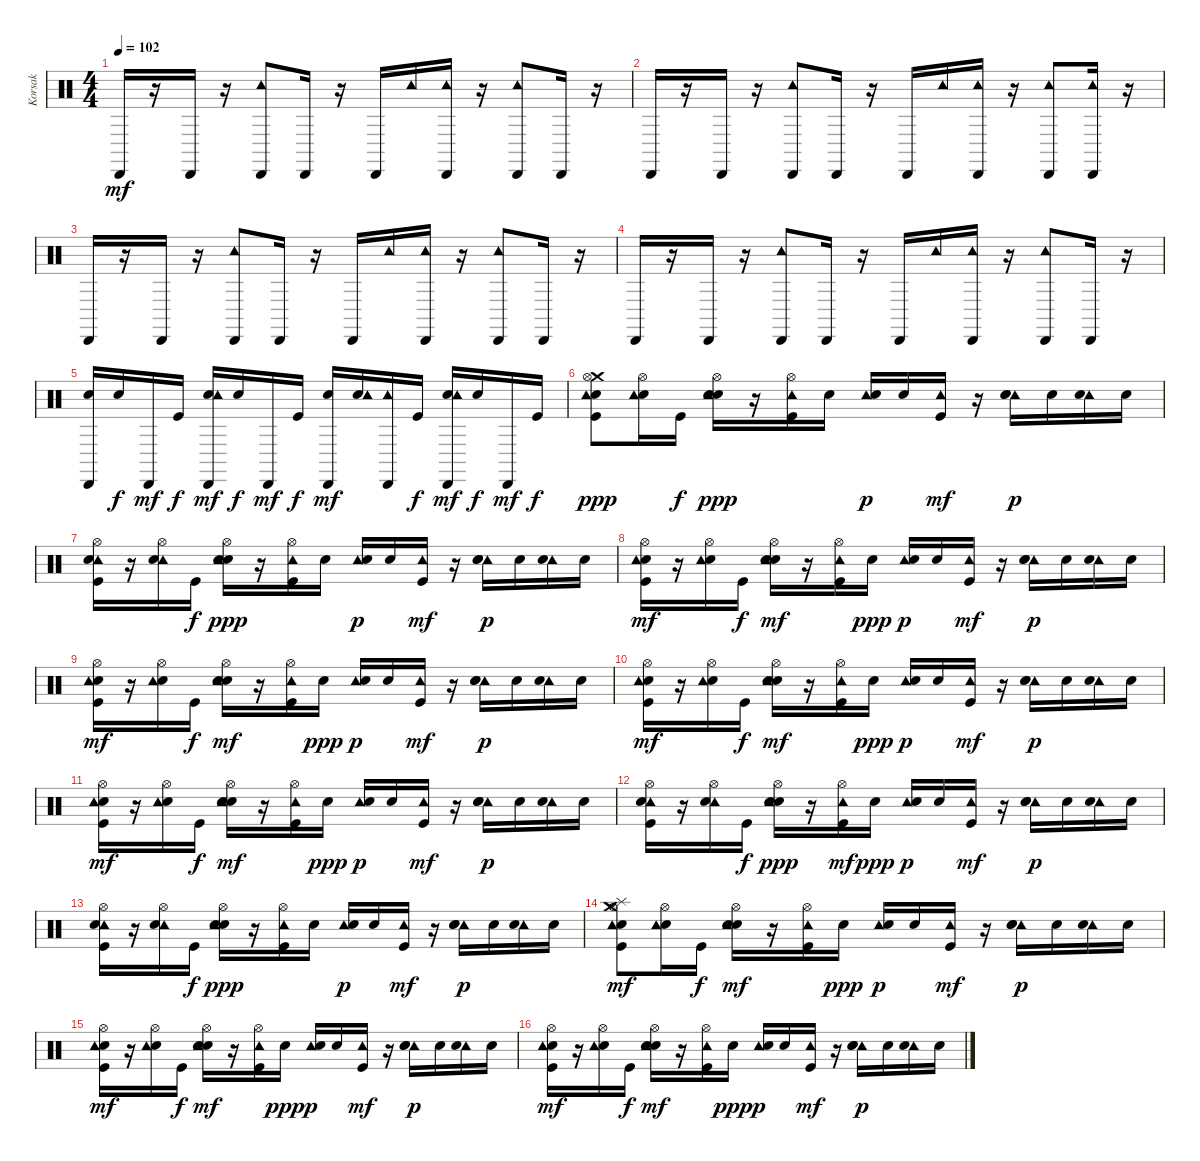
\track ("Korsak" "Korsak") {instrument percussion}
\staff {score}
\articulation defaults
\ts (4 4)
\tempo 102
\clef neutral
\ks c "Cabasa (hit)".16{dy mf}
r.16 "Cabasa (hit)".16 r.16 ("Tambourine (hit)" "Cabasa (hit)").8 "Cabasa (hit)".16 r.16 "Cabasa (hit)".16 "Tambourine (hit)".16 ("Tambourine (hit)" "Cabasa (hit)").16 r.16 ("Tambourine (hit)" "Cabasa (hit)").8 "Cabasa (hit)".16 r.16 |
"Cabasa (hit)".16 r.16 "Cabasa (hit)".16 r.16 ("Tambourine (hit)" "Cabasa (hit)").8 "Cabasa (hit)".16 r.16 "Cabasa (hit)".16 "Tambourine (hit)".16 ("Tambourine (hit)" "Cabasa (hit)").16 r.16 ("Tambourine (hit)" "Cabasa (hit)").8 ("Tambourine (hit)" "Cabasa (hit)").16 r.16 |
"Cabasa (hit)".16 r.16 "Cabasa (hit)".16 r.16 ("Tambourine (hit)" "Cabasa (hit)").8 "Cabasa (hit)".16 r.16 "Cabasa (hit)".16 "Tambourine (hit)".16 ("Tambourine (hit)" "Cabasa (hit)").16 r.16 ("Tambourine (hit)" "Cabasa (hit)").8 "Cabasa (hit)".16 r.16 |
"Cabasa (hit)".16 r.16 "Cabasa (hit)".16 r.16 ("Tambourine (hit)" "Cabasa (hit)").8 "Cabasa (hit)".16 r.16 "Cabasa (hit)".16 "Tambourine (hit)".16 ("Tambourine (hit)" "Cabasa (hit)").16 r.16 ("Tambourine (hit)" "Cabasa (hit)").8 "Cabasa (hit)".16 r.16 |
("Snare (hit) 2" "Cabasa (hit)").16 "Snare (hit) 2".16{dy f} "Cabasa (hit)".16{dy mf} "Kick (hit)".16{dy f} ("Snare (hit) 2" "Tambourine (hit)" "Cabasa (hit)").16{dy mf} "Snare (hit) 2".16{dy f} "Cabasa (hit)".16{dy mf} "Kick (hit)".16{dy f} ("Snare (hit) 2" "Cabasa (hit)").16{dy mf} ("Snare (hit) 2" "Tambourine (hit)").16 ("Tambourine (hit)" "Cabasa (hit)").16 "Kick (hit)".16{dy f} ("Snare (hit) 2" "Tambourine (hit)" "Cabasa (hit)").16{dy mf} "Snare (hit) 2".16{dy f} "Cabasa (hit)".16{dy mf} "Kick (hit)".16{dy f} |
("Crash medium (hit)" "Electric Snare (hit)" "Kick (hit)" "Tambourine (hit)" "Hi-Hat (open)").8{dy ppp} ("Electric Snare (hit)" "Tambourine (hit)" "Hi-Hat (open)").16 "Kick (hit)".16{dy f} ("Electric Snare (hit)" "Snare (hit) 2" "Tambourine (hit)" "Hi-Hat (open)").16{dy ppp} r.16 ("Kick (hit)" "Tambourine (hit)" "Hi-Hat (open)").16 "Electric Snare (hit)".16 ("Tambourine (hit)" "Electric Snare (hit)").16{dy p} "Electric Snare (hit)".16 ("Kick (hit)" "Tambourine (hit)").16{dy mf} r.16 ("Tambourine (hit)" "Electric Snare (hit)" "Snare (hit) 2").16{dy p} "Electric Snare (hit)".16 ("Tambourine (hit)" "Electric Snare (hit)").16 "Electric Snare (hit)".16 |
("Kick (hit)" "Tambourine (hit)" "Hi-Hat (open)" "Electric Snare (hit)").16 r.16 ("Tambourine (hit)" "Hi-Hat (open)" "Electric Snare (hit)").16 "Kick (hit)".16{dy f} ("Snare (hit) 2" "Tambourine (hit)" "Hi-Hat (open)" "Electric Snare (hit)").16{dy ppp} r.16 ("Kick (hit)" "Tambourine (hit)" "Hi-Hat (open)").16 "Electric Snare (hit)".16 ("Tambourine (hit)" "Electric Snare (hit)").16{dy p} "Electric Snare (hit)".16 ("Kick (hit)" "Tambourine (hit)").16{dy mf} r.16 ("Tambourine (hit)" "Electric Snare (hit)" "Snare (hit) 2").16{dy p} "Electric Snare (hit)".16 ("Tambourine (hit)" "Electric Snare (hit)").16 "Electric Snare (hit)".16 |
("Hi-Hat (open)" "Kick (hit)" "Electric Snare (hit)" "Tambourine (hit)").16{dy mf} r.16 ("Hi-Hat (open)" "Electric Snare (hit)" "Tambourine (hit)").16 "Kick (hit)".16{dy f} ("Hi-Hat (open)" "Snare (hit) 2" "Electric Snare (hit)" "Tambourine (hit)").16{dy mf} r.16 ("Hi-Hat (open)" "Kick (hit)" "Tambourine (hit)").16 "Electric Snare (hit)".16{dy ppp} ("Tambourine (hit)" "Electric Snare (hit)").16{dy p} "Electric Snare (hit)".16 ("Kick (hit)" "Tambourine (hit)").16{dy mf} r.16 ("Tambourine (hit)" "Electric Snare (hit)" "Snare (hit) 2").16{dy p} "Electric Snare (hit)".16 ("Tambourine (hit)" "Electric Snare (hit)").16 "Electric Snare (hit)".16 |
("Kick (hit)" "Hi-Hat (open)" "Electric Snare (hit)" "Tambourine (hit)").16{dy mf} r.16 ("Hi-Hat (open)" "Electric Snare (hit)" "Tambourine (hit)").16 "Kick (hit)".16{dy f} ("Snare (hit) 2" "Hi-Hat (open)" "Electric Snare (hit)" "Tambourine (hit)").16{dy mf} r.16 ("Kick (hit)" "Hi-Hat (open)" "Tambourine (hit)").16 "Electric Snare (hit)".16{dy ppp} ("Tambourine (hit)" "Electric Snare (hit)").16{dy p} "Electric Snare (hit)".16 ("Kick (hit)" "Tambourine (hit)").16{dy mf} r.16 ("Tambourine (hit)" "Electric Snare (hit)" "Snare (hit) 2").16{dy p} "Electric Snare (hit)".16 ("Tambourine (hit)" "Electric Snare (hit)").16 "Electric Snare (hit)".16 |
("Hi-Hat (open)" "Kick (hit)" "Electric Snare (hit)" "Tambourine (hit)").16{dy mf} r.16 ("Hi-Hat (open)" "Electric Snare (hit)" "Tambourine (hit)").16 "Kick (hit)".16{dy f} ("Hi-Hat (open)" "Snare (hit) 2" "Electric Snare (hit)" "Tambourine (hit)").16{dy mf} r.16 ("Hi-Hat (open)" "Kick (hit)" "Tambourine (hit)").16 "Electric Snare (hit)".16{dy ppp} ("Tambourine (hit)" "Electric Snare (hit)").16{dy p} "Electric Snare (hit)".16 ("Kick (hit)" "Tambourine (hit)").16{dy mf} r.16 ("Tambourine (hit)" "Electric Snare (hit)" "Snare (hit) 2").16{dy p} "Electric Snare (hit)".16 ("Tambourine (hit)" "Electric Snare (hit)").16 "Electric Snare (hit)".16 |
("Hi-Hat (open)" "Kick (hit)" "Electric Snare (hit)" "Tambourine (hit)").16{dy mf} r.16 ("Hi-Hat (open)" "Electric Snare (hit)" "Tambourine (hit)").16 "Kick (hit)".16{dy f} ("Hi-Hat (open)" "Snare (hit) 2" "Electric Snare (hit)" "Tambourine (hit)").16{dy mf} r.16 ("Hi-Hat (open)" "Kick (hit)" "Tambourine (hit)").16 "Electric Snare (hit)".16{dy ppp} ("Tambourine (hit)" "Electric Snare (hit)").16{dy p} "Electric Snare (hit)".16 ("Kick (hit)" "Tambourine (hit)").16{dy mf} r.16 ("Tambourine (hit)" "Electric Snare (hit)" "Snare (hit) 2").16{dy p} "Electric Snare (hit)".16 ("Tambourine (hit)" "Electric Snare (hit)").16 "Electric Snare (hit)".16 |
("Hi-Hat (open)" "Kick (hit)" "Tambourine (hit)" "Electric Snare (hit)").16 r.16 ("Hi-Hat (open)" "Tambourine (hit)" "Electric Snare (hit)").16 "Kick (hit)".16{dy f} ("Hi-Hat (open)" "Snare (hit) 2" "Tambourine (hit)" "Electric Snare (hit)").16{dy ppp} r.16 ("Hi-Hat (open)" "Kick (hit)" "Tambourine (hit)").16{dy mf} "Electric Snare (hit)".16{dy ppp} ("Tambourine (hit)" "Electric Snare (hit)").16{dy p} "Electric Snare (hit)".16 ("Kick (hit)" "Tambourine (hit)").16{dy mf} r.16 ("Tambourine (hit)" "Electric Snare (hit)" "Snare (hit) 2").16{dy p} "Electric Snare (hit)".16 ("Tambourine (hit)" "Electric Snare (hit)").16 "Electric Snare (hit)".16 |
("Kick (hit)" "Tambourine (hit)" "Hi-Hat (open)" "Electric Snare (hit)").16 r.16 ("Tambourine (hit)" "Hi-Hat (open)" "Electric Snare (hit)").16 "Kick (hit)".16{dy f} ("Snare (hit) 2" "Tambourine (hit)" "Hi-Hat (open)" "Electric Snare (hit)").16{dy ppp} r.16 ("Kick (hit)" "Tambourine (hit)" "Hi-Hat (open)").16 "Electric Snare (hit)".16 ("Tambourine (hit)" "Electric Snare (hit)").16{dy p} "Electric Snare (hit)".16 ("Kick (hit)" "Tambourine (hit)").16{dy mf} r.16 ("Tambourine (hit)" "Electric Snare (hit)" "Snare (hit) 2").16{dy p} "Electric Snare (hit)".16 ("Tambourine (hit)" "Electric Snare (hit)").16 "Electric Snare (hit)".16 |
("Splash (hit)" "Crash medium (hit)" "Kick (hit)" "Hi-Hat (open)" "Electric Snare (hit)" "Tambourine (hit)").8{dy mf} ("Hi-Hat (open)" "Electric Snare (hit)" "Tambourine (hit)").16 "Kick (hit)".16{dy f} ("Snare (hit) 2" "Hi-Hat (open)" "Electric Snare (hit)" "Tambourine (hit)").16{dy mf} r.16 ("Kick (hit)" "Hi-Hat (open)" "Tambourine (hit)").16 "Electric Snare (hit)".16{dy ppp} ("Tambourine (hit)" "Electric Snare (hit)").16{dy p} "Electric Snare (hit)".16 ("Kick (hit)" "Tambourine (hit)").16{dy mf} r.16 ("Tambourine (hit)" "Electric Snare (hit)" "Snare (hit) 2").16{dy p} "Electric Snare (hit)".16 ("Tambourine (hit)" "Electric Snare (hit)").16 "Electric Snare (hit)".16 |
("Hi-Hat (open)" "Kick (hit)" "Electric Snare (hit)" "Tambourine (hit)").16{dy mf} r.16 ("Hi-Hat (open)" "Electric Snare (hit)" "Tambourine (hit)").16 "Kick (hit)".16{dy f} ("Hi-Hat (open)" "Snare (hit) 2" "Electric Snare (hit)" "Tambourine (hit)").16{dy mf} r.16 ("Hi-Hat (open)" "Kick (hit)" "Tambourine (hit)").16 "Electric Snare (hit)".16{dy ppp} ("Tambourine (hit)" "Electric Snare (hit)").16{dy p} "Electric Snare (hit)".16 ("Kick (hit)" "Tambourine (hit)").16{dy mf} r.16 ("Tambourine (hit)" "Electric Snare (hit)" "Snare (hit) 2").16{dy p} "Electric Snare (hit)".16 ("Tambourine (hit)" "Electric Snare (hit)").16 "Electric Snare (hit)".16 |
("Electric Snare (hit)" "Hi-Hat (open)" "Kick (hit)" "Tambourine (hit)").16{dy mf} r.16 ("Electric Snare (hit)" "Hi-Hat (open)" "Tambourine (hit)").16 "Kick (hit)".16{dy f} ("Electric Snare (hit)" "Hi-Hat (open)" "Snare (hit) 2" "Tambourine (hit)").16{dy mf} r.16 ("Hi-Hat (open)" "Kick (hit)" "Tambourine (hit)").16 "Electric Snare (hit)".16{dy ppp} ("Tambourine (hit)" "Electric Snare (hit)").16{dy p} "Electric Snare (hit)".16 ("Kick (hit)" "Tambourine (hit)").16{dy mf} r.16 ("Tambourine (hit)" "Electric Snare (hit)" "Snare (hit) 2").16{dy p} "Electric Snare (hit)".16 ("Tambourine (hit)" "Electric Snare (hit)").16 "Electric Snare (hit)".16
